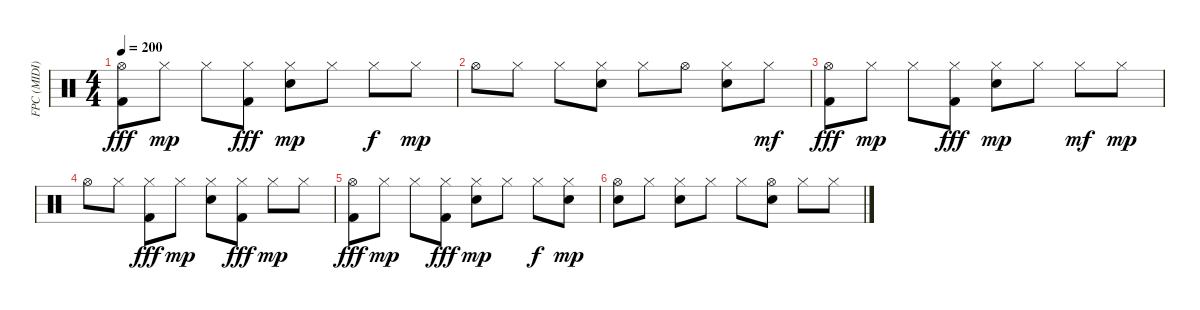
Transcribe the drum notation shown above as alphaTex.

\track ("FPC (MIDI)" "FPC (MIDI)") {instrument percussion}
\staff {score}
\articulation defaults
\ts (4 4)
\tempo 200
\clef neutral
\ks c
("Hi-Hat (open)" "Kick (hit) 2").8{dy fff} "Hi-Hat (closed)".8{dy mp} "Hi-Hat (closed)".8 ("Hi-Hat (closed)" "Kick (hit) 2").8{dy fff} ("Hi-Hat (closed)" "Electric Snare (hit)").8{dy mp} "Hi-Hat (closed)".8 "Hi-Hat (closed)".8{dy f} "Hi-Hat (closed)".8{dy mp} |
"Hi-Hat (open)".8 "Hi-Hat (closed)".8 "Hi-Hat (closed)".8 ("Hi-Hat (closed)" "Electric Snare (hit)").8 "Hi-Hat (closed)".8 "Hi-Hat (open)".8 ("Hi-Hat (closed)" "Electric Snare (hit)").8 "Hi-Hat (closed)".8{dy mf} |
("Hi-Hat (open)" "Kick (hit) 2").8{dy fff} "Hi-Hat (closed)".8{dy mp} "Hi-Hat (closed)".8 ("Hi-Hat (closed)" "Kick (hit) 2").8{dy fff} ("Hi-Hat (closed)" "Electric Snare (hit)").8{dy mp} "Hi-Hat (closed)".8 "Hi-Hat (closed)".8{dy mf} "Hi-Hat (closed)".8{dy mp} |
"Hi-Hat (open)".8 "Hi-Hat (closed)".8 ("Hi-Hat (closed)" "Kick (hit) 2").8{dy fff} "Hi-Hat (closed)".8{dy mp} ("Hi-Hat (closed)" "Electric Snare (hit)").8 ("Hi-Hat (closed)" "Kick (hit) 2").8{dy fff} "Hi-Hat (closed)".8{dy mp} "Hi-Hat (closed)".8 |
("Hi-Hat (open)" "Kick (hit) 2").8{dy fff} "Hi-Hat (closed)".8{dy mp} "Hi-Hat (closed)".8 ("Hi-Hat (closed)" "Kick (hit) 2").8{dy fff} ("Hi-Hat (closed)" "Electric Snare (hit)").8{dy mp} "Hi-Hat (closed)".8 "Hi-Hat (closed)".8{dy f} ("Hi-Hat (closed)" "Electric Snare (hit)").8{dy mp} |
("Hi-Hat (open)" "Electric Snare (hit)").8 "Hi-Hat (closed)".8 ("Hi-Hat (closed)" "Electric Snare (hit)").8 "Hi-Hat (closed)".8 "Hi-Hat (closed)".8 ("Hi-Hat (open)" "Electric Snare (hit)").8 "Hi-Hat (closed)".8 "Hi-Hat (closed)".8
